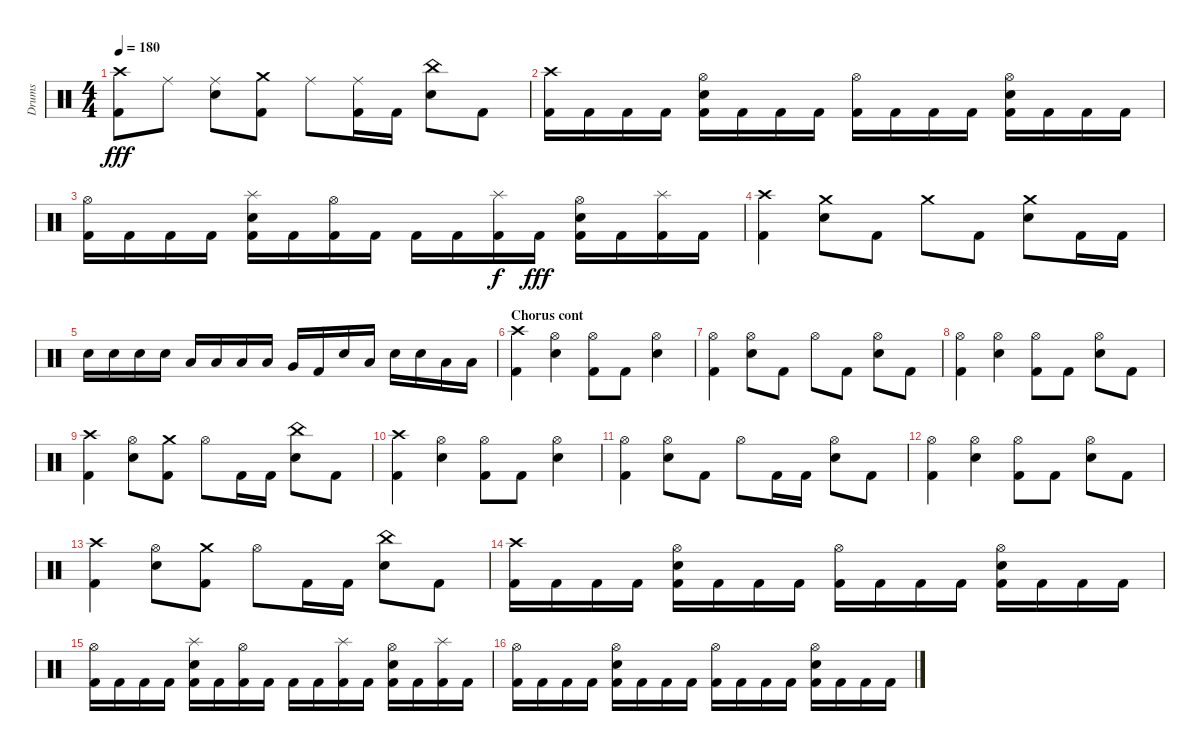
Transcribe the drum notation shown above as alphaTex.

\track ("Drums" "Drums") {instrument percussion}
\staff {score}
\articulation defaults
\ts (4 4)
\tempo 180
\clef neutral
\ks aminor
("Kick (hit) 2" "Crash high (hit)").8{dy fff} "Ride (middle)".8 ("Snare (hit) 2" "Ride (middle)").8 ("Crash medium (hit)" "Kick (hit) 2").8 "Ride (middle)".8 ("Kick (hit) 2" "Ride (middle)").16 "Kick (hit) 2".16 ("Snare (hit) 2" "China (hit)").8 "Kick (hit) 2".8 |
("Kick (hit) 2" "Crash high (hit)").16 "Kick (hit) 2".16 "Kick (hit) 2".16 "Kick (hit) 2".16 ("Snare (hit) 2" "Hi-Hat (open)" "Kick (hit) 2").16 "Kick (hit) 2".16 "Kick (hit) 2".16 "Kick (hit) 2".16 ("Kick (hit) 2" "Hi-Hat (open)").16 "Kick (hit) 2".16 "Kick (hit) 2".16 "Kick (hit) 2".16 ("Snare (hit) 2" "Hi-Hat (open)" "Kick (hit) 2").16 "Kick (hit) 2".16 "Kick (hit) 2".16 "Kick (hit) 2".16 |
("Kick (hit) 2" "Hi-Hat (open)").16 "Kick (hit) 2".16 "Kick (hit) 2".16 "Kick (hit) 2".16 ("Kick (hit) 2" "Snare (hit) 2" "Splash (hit)").16 "Kick (hit) 2".16 ("Kick (hit) 2" "Hi-Hat (open)").16 "Kick (hit) 2".16 "Kick (hit) 2".16 "Kick (hit) 2".16 ("Splash (hit)" "Kick (hit) 2").16{dy f} "Kick (hit) 2".16{dy fff} ("Hi-Hat (open)" "Kick (hit) 2" "Snare (hit) 2").16 "Kick (hit) 2".16 ("Kick (hit) 2" "Splash (hit)").16 "Kick (hit) 2".16 |
("Kick (hit) 2" "Crash high (hit)").4 ("Snare (hit) 2" "Crash medium (hit)").8 "Kick (hit) 2".8 "Crash medium (hit)".8 "Kick (hit) 2".8 ("Snare (hit) 2" "Crash medium (hit)").8 "Kick (hit) 2".16 "Kick (hit) 2".16 |
"Snare (hit) 2".16 "Snare (hit) 2".16 "Snare (hit) 2".16 "Snare (hit) 2".16 "Low Tom (hit)".16 "Low Tom (hit)".16 "Low Tom (hit)".16 "Low Tom (hit)".16 "Very Low Tom (hit)".16 "Kick (hit) 2".16 "Snare (hit) 2".16 "Low Floor Tom (hit)".16 "Snare (hit) 2".16 "Snare (hit) 2".16 "Low Floor Tom (hit)".16 "Low Floor Tom (hit)".16 |
\section ("" "Chorus cont")
("Crash high (hit)" "Kick (hit) 2").4 ("Snare (hit) 2" "Hi-Hat (open)").4 ("Hi-Hat (open)" "Kick (hit) 2").8 "Kick (hit) 2".8 ("Hi-Hat (open)" "Snare (hit) 2").4 |
("Hi-Hat (open)" "Kick (hit) 2").4 ("Hi-Hat (open)" "Snare (hit) 2").8 "Kick (hit) 2".8 "Hi-Hat (open)".8 "Kick (hit) 2".8 ("Snare (hit) 2" "Hi-Hat (open)").8 "Kick (hit) 2".8 |
("Kick (hit) 2" "Hi-Hat (open)").4 ("Hi-Hat (open)" "Snare (hit) 2").4 ("Kick (hit) 2" "Hi-Hat (open)").8 "Kick (hit) 2".8 ("Hi-Hat (open)" "Snare (hit) 2").8 "Kick (hit) 2".8 |
("Kick (hit) 2" "Crash high (hit)").4 ("Snare (hit) 2" "Hi-Hat (open)").8 ("Crash medium (hit)" "Kick (hit) 2").8 "Hi-Hat (open)".8 "Kick (hit) 2".16 "Kick (hit) 2".16 ("Snare (hit) 2" "China (hit)").8 "Kick (hit) 2".8 |
("Crash high (hit)" "Kick (hit) 2").4 ("Snare (hit) 2" "Hi-Hat (open)").4 ("Hi-Hat (open)" "Kick (hit) 2").8 "Kick (hit) 2".8 ("Snare (hit) 2" "Hi-Hat (open)").4 |
("Hi-Hat (open)" "Kick (hit) 2").4 ("Snare (hit) 2" "Hi-Hat (open)").8 "Kick (hit) 2".8 "Hi-Hat (open)".8 "Kick (hit) 2".16 "Kick (hit) 2".16 ("Snare (hit) 2" "Hi-Hat (open)").8 "Kick (hit) 2".8 |
("Kick (hit) 2" "Hi-Hat (open)").4 ("Snare (hit) 2" "Hi-Hat (open)").4 ("Kick (hit) 2" "Hi-Hat (open)").8 "Kick (hit) 2".8 ("Snare (hit) 2" "Hi-Hat (open)").8 "Kick (hit) 2".8 |
("Kick (hit) 2" "Crash high (hit)").4 ("Snare (hit) 2" "Hi-Hat (open)").8 ("Kick (hit) 2" "Crash medium (hit)").8 "Hi-Hat (open)".8 "Kick (hit) 2".16 "Kick (hit) 2".16 ("Snare (hit) 2" "China (hit)").8 "Kick (hit) 2".8 |
("Kick (hit) 2" "Crash high (hit)").16 "Kick (hit) 2".16 "Kick (hit) 2".16 "Kick (hit) 2".16 ("Hi-Hat (open)" "Kick (hit) 2" "Snare (hit) 2").16 "Kick (hit) 2".16 "Kick (hit) 2".16 "Kick (hit) 2".16 ("Kick (hit) 2" "Hi-Hat (open)").16 "Kick (hit) 2".16 "Kick (hit) 2".16 "Kick (hit) 2".16 ("Snare (hit) 2" "Hi-Hat (open)" "Kick (hit) 2").16 "Kick (hit) 2".16 "Kick (hit) 2".16 "Kick (hit) 2".16 |
("Kick (hit) 2" "Hi-Hat (open)").16 "Kick (hit) 2".16 "Kick (hit) 2".16 "Kick (hit) 2".16 ("Splash (hit)" "Kick (hit) 2" "Snare (hit) 2").16 "Kick (hit) 2".16 ("Hi-Hat (open)" "Kick (hit) 2").16 "Kick (hit) 2".16 "Kick (hit) 2".16 "Kick (hit) 2".16 ("Kick (hit) 2" "Splash (hit)").16 "Kick (hit) 2".16 ("Kick (hit) 2" "Snare (hit) 2" "Hi-Hat (open)").16 "Kick (hit) 2".16 ("Kick (hit) 2" "Splash (hit)").16 "Kick (hit) 2".16 |
("Hi-Hat (open)" "Kick (hit) 2").16 "Kick (hit) 2".16 "Kick (hit) 2".16 "Kick (hit) 2".16 ("Hi-Hat (open)" "Snare (hit) 2" "Kick (hit) 2").16 "Kick (hit) 2".16 "Kick (hit) 2".16 "Kick (hit) 2".16 ("Kick (hit) 2" "Hi-Hat (open)").16 "Kick (hit) 2".16 "Kick (hit) 2".16 "Kick (hit) 2".16 ("Snare (hit) 2" "Kick (hit) 2" "Hi-Hat (open)").16 "Kick (hit) 2".16 "Kick (hit) 2".16 "Kick (hit) 2".16
